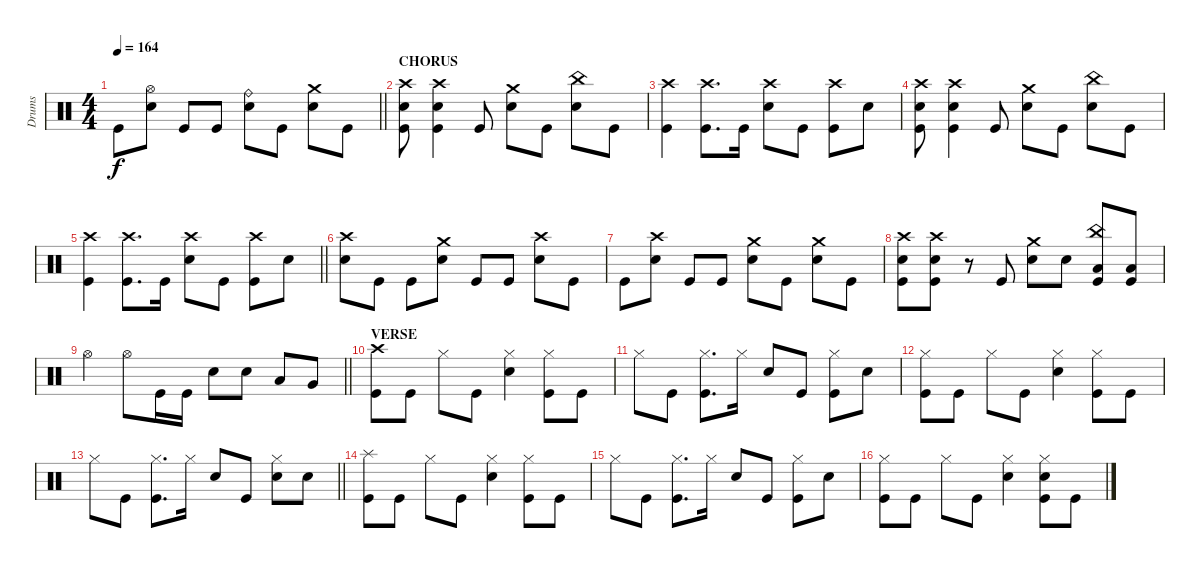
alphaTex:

\track ("Drums" "Drums") {instrument percussion}
\staff
\articulation defaults
\ts (4 4)
\tempo 164
\clef neutral
\barLineRight lightlight
\ks c "Kick (hit)".8{dy f}
("Hi-Hat (open)" "Electric Snare (hit)").8 "Kick (hit)".8 "Kick (hit)".8 ("Ride (bell)" "Electric Snare (hit)").8 "Kick (hit)".8 ("Crash medium (hit)" "Electric Snare (hit)").8 "Kick (hit)".8 |
\section ("" "CHORUS")
("Crash high (hit)" "Electric Snare (hit)" "Kick (hit)").8 ("Crash high (hit)" "Electric Snare (hit)" "Kick (hit)").4 "Kick (hit)".8 ("Crash medium (hit)" "Electric Snare (hit)").8 "Kick (hit)".8 ("China (hit)" "Electric Snare (hit)").8 "Kick (hit)".8 |
("Crash high (hit)" "Kick (hit)").4 ("Crash high (hit)" "Kick (hit)").8{d} "Kick (hit)".16 ("Crash high (hit)" "Electric Snare (hit)").8 "Kick (hit)".8 ("Crash high (hit)" "Kick (hit)").8 "Electric Snare (hit)".8 |
("Crash high (hit)" "Electric Snare (hit)" "Kick (hit)").8 ("Crash high (hit)" "Electric Snare (hit)" "Kick (hit)").4 "Kick (hit)".8 ("Crash medium (hit)" "Electric Snare (hit)").8 "Kick (hit)".8 ("China (hit)" "Electric Snare (hit)").8 "Kick (hit)".8 |
\barLineRight lightlight
("Crash high (hit)" "Kick (hit)").4 ("Crash high (hit)" "Kick (hit)").8{d} "Kick (hit)".16 ("Crash high (hit)" "Electric Snare (hit)").8 "Kick (hit)".8 ("Crash high (hit)" "Kick (hit)").8 "Electric Snare (hit)".8 |
("Crash high (hit)" "Electric Snare (hit)").8 "Kick (hit)".8 "Kick (hit)".8 ("Crash medium (hit)" "Electric Snare (hit)").8 "Kick (hit)".8 "Kick (hit)".8 ("Crash high (hit)" "Electric Snare (hit)").8 "Kick (hit)".8 |
"Kick (hit)".8 ("Crash high (hit)" "Electric Snare (hit)").8 "Kick (hit)".8 "Kick (hit)".8 ("Crash medium (hit)" "Electric Snare (hit)").8 "Kick (hit)".8 ("Crash medium (hit)" "Electric Snare (hit)").8 "Kick (hit)".8 |
("Crash high (hit)" "Electric Snare (hit)" "Kick (hit)").8 ("Crash high (hit)" "Electric Snare (hit)" "Kick (hit)").8 r.8 "Kick (hit)".8 ("Crash medium (hit)" "Electric Snare (hit)").8 "Electric Snare (hit)".8 ("China (hit)" "Low Floor Tom (hit)" "Kick (hit)").8 ("Low Floor Tom (hit)" "Kick (hit)").8 |
\barLineRight lightlight "Hi-Hat (open)".4 "Hi-Hat (open)".8 "Kick (hit)".16 "Kick (hit)".16 "Electric Snare (hit)".8 "Electric Snare (hit)".8 "Low Tom (hit)".8 "Very Low Tom (hit)".8
|
\section ("" "VERSE")
("Crash high (hit)" "Kick (hit)").8 "Kick (hit)".8 "Hi-Hat (closed)".8 "Kick (hit)".8 ("Hi-Hat (closed)" "Electric Snare (hit)").4 ("Hi-Hat (closed)" "Kick (hit)").8 "Kick (hit)".8 |
"Hi-Hat (closed)".8 "Kick (hit)".8 ("Hi-Hat (closed)" "Kick (hit)").8{d} "Hi-Hat (closed)".16 "Electric Snare (hit)".8 "Kick (hit)".8 ("Hi-Hat (closed)" "Kick (hit)").8 "Electric Snare (hit)".8 |
("Hi-Hat (closed)" "Kick (hit)").8 "Kick (hit)".8 "Hi-Hat (closed)".8 "Kick (hit)".8 ("Hi-Hat (closed)" "Electric Snare (hit)").4 ("Hi-Hat (closed)" "Kick (hit)").8 "Kick (hit)".8 |
\barLineRight lightlight "Hi-Hat (closed)".8 "Kick (hit)".8
("Hi-Hat (closed)" "Kick (hit)").8{d} "Hi-Hat (closed)".16 "Electric Snare (hit)".8 "Kick (hit)".8 ("Hi-Hat (closed)" "Electric Snare (hit)").8 "Electric Snare (hit)".8 |
("Splash (hit)" "Kick (hit)").8 "Kick (hit)".8 "Hi-Hat (closed)".8 "Kick (hit)".8 ("Hi-Hat (closed)" "Electric Snare (hit)").4 ("Hi-Hat (closed)" "Kick (hit)").8 "Kick (hit)".8 |
"Hi-Hat (closed)".8 "Kick (hit)".8 ("Hi-Hat (closed)" "Kick (hit)").8{d} "Hi-Hat (closed)".16 "Electric Snare (hit)".8 "Kick (hit)".8 ("Hi-Hat (closed)" "Kick (hit)").8 "Electric Snare (hit)".8 |
("Hi-Hat (closed)" "Kick (hit)").8 "Kick (hit)".8 "Hi-Hat (closed)".8 "Kick (hit)".8 ("Hi-Hat (closed)" "Electric Snare (hit)").4 ("Hi-Hat (closed)" "Electric Snare (hit)" "Kick (hit)").8 "Kick (hit)".8
